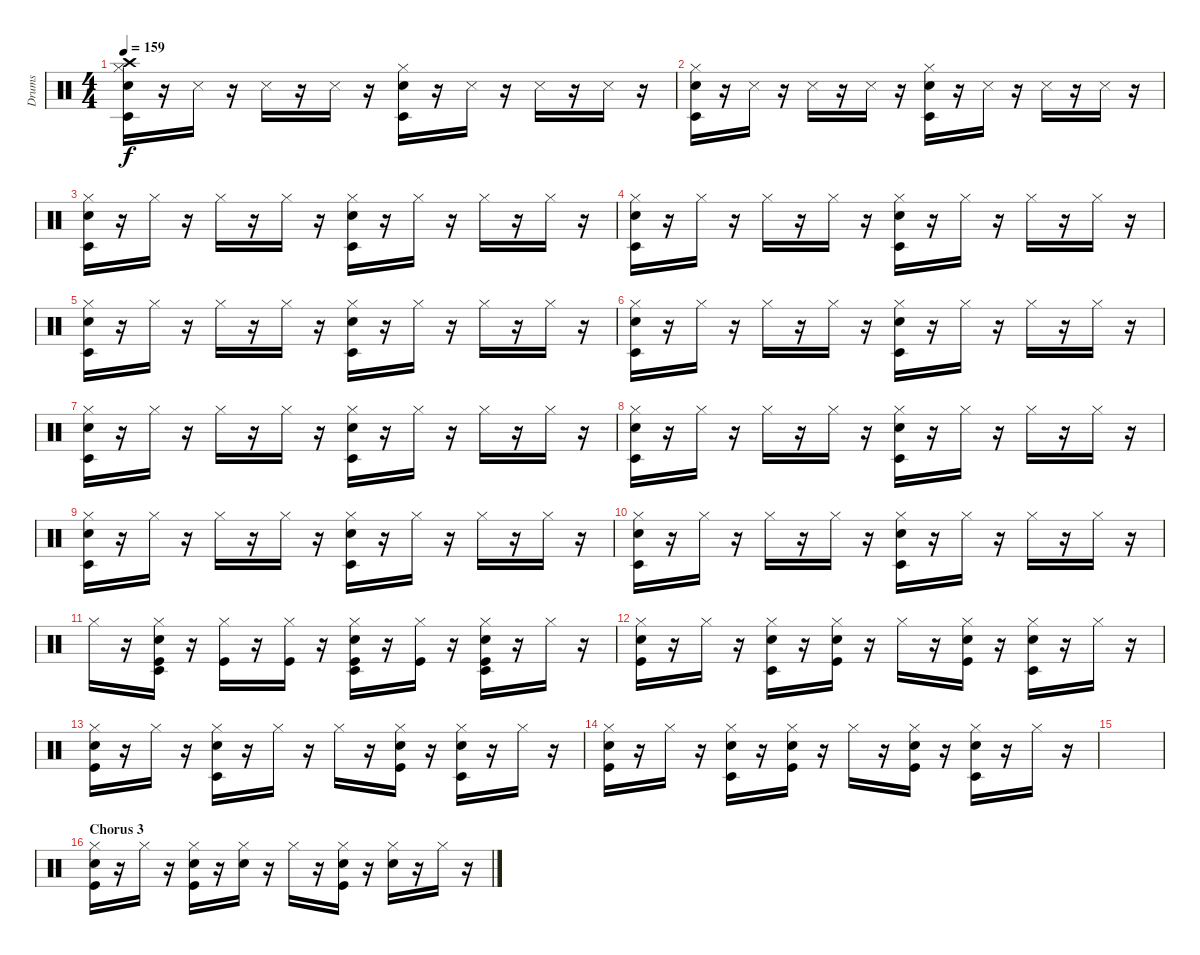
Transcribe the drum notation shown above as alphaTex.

\track ("Drums" "Drums") {instrument percussion}
\staff {score}
\articulation defaults
\ts (4 4)
\tempo 159
\clef neutral
\ks c
("Hi-Hat (closed)" "Timbale low (hit)" "Snare (hit) 2" "Crash high (hit)").16{dy f} r.16 "Snare (side stick) 3".16 r.16 "Snare (side stick) 3".16 r.16 "Snare (side stick) 3".16 r.16 ("Hi-Hat (closed)" "Timbale low (hit)" "Snare (hit) 2").16 r.16 "Snare (side stick) 3".16 r.16 "Snare (side stick) 3".16 r.16 "Snare (side stick) 3".16 r.16 |
("Hi-Hat (closed)" "Timbale low (hit)" "Snare (hit) 2").16 r.16 "Snare (side stick) 3".16 r.16 "Snare (side stick) 3".16 r.16 "Snare (side stick) 3".16 r.16 ("Hi-Hat (closed)" "Timbale low (hit)" "Snare (hit) 2").16 r.16 "Snare (side stick) 3".16 r.16 "Snare (side stick) 3".16 r.16 "Snare (side stick) 3".16 r.16 |
("Hi-Hat (closed)" "Timbale low (hit)" "Snare (hit) 2").16 r.16 "Hi-Hat (closed)".16 r.16 "Hi-Hat (closed)".16 r.16 "Hi-Hat (closed)".16 r.16 ("Hi-Hat (closed)" "Timbale low (hit)" "Snare (hit) 2").16 r.16 "Hi-Hat (closed)".16 r.16 "Hi-Hat (closed)".16 r.16 "Hi-Hat (closed)".16 r.16 |
("Hi-Hat (closed)" "Timbale low (hit)" "Snare (hit) 2").16 r.16 "Hi-Hat (closed)".16 r.16 "Hi-Hat (closed)".16 r.16 "Hi-Hat (closed)".16 r.16 ("Hi-Hat (closed)" "Timbale low (hit)" "Snare (hit) 2").16 r.16 "Hi-Hat (closed)".16 r.16 "Hi-Hat (closed)".16 r.16 "Hi-Hat (closed)".16 r.16 |
("Hi-Hat (closed)" "Timbale low (hit)" "Snare (hit) 2").16 r.16 "Hi-Hat (closed)".16 r.16 "Hi-Hat (closed)".16 r.16 "Hi-Hat (closed)".16 r.16 ("Hi-Hat (closed)" "Timbale low (hit)" "Snare (hit) 2").16 r.16 "Hi-Hat (closed)".16 r.16 "Hi-Hat (closed)".16 r.16 "Hi-Hat (closed)".16 r.16 |
("Hi-Hat (closed)" "Timbale low (hit)" "Snare (hit) 2").16 r.16 "Hi-Hat (closed)".16 r.16 "Hi-Hat (closed)".16 r.16 "Hi-Hat (closed)".16 r.16 ("Hi-Hat (closed)" "Timbale low (hit)" "Snare (hit) 2").16 r.16 "Hi-Hat (closed)".16 r.16 "Hi-Hat (closed)".16 r.16 "Hi-Hat (closed)".16 r.16 |
("Hi-Hat (closed)" "Timbale low (hit)" "Snare (hit) 2").16 r.16 "Hi-Hat (closed)".16 r.16 "Hi-Hat (closed)".16 r.16 "Hi-Hat (closed)".16 r.16 ("Hi-Hat (closed)" "Timbale low (hit)" "Snare (hit) 2").16 r.16 "Hi-Hat (closed)".16 r.16 "Hi-Hat (closed)".16 r.16 "Hi-Hat (closed)".16 r.16 |
("Hi-Hat (closed)" "Timbale low (hit)" "Snare (hit) 2").16 r.16 "Hi-Hat (closed)".16 r.16 "Hi-Hat (closed)".16 r.16 "Hi-Hat (closed)".16 r.16 ("Hi-Hat (closed)" "Timbale low (hit)" "Snare (hit) 2").16 r.16 "Hi-Hat (closed)".16 r.16 "Hi-Hat (closed)".16 r.16 "Hi-Hat (closed)".16 r.16 |
("Hi-Hat (closed)" "Timbale low (hit)" "Snare (hit) 2").16 r.16 "Hi-Hat (closed)".16 r.16 "Hi-Hat (closed)".16 r.16 "Hi-Hat (closed)".16 r.16 ("Hi-Hat (closed)" "Timbale low (hit)" "Snare (hit) 2").16 r.16 "Hi-Hat (closed)".16 r.16 "Hi-Hat (closed)".16 r.16 "Hi-Hat (closed)".16 r.16 |
("Hi-Hat (closed)" "Timbale low (hit)" "Snare (hit) 2").16 r.16 "Hi-Hat (closed)".16 r.16 "Hi-Hat (closed)".16 r.16 "Hi-Hat (closed)".16 r.16 ("Hi-Hat (closed)" "Timbale low (hit)" "Snare (hit) 2").16 r.16 "Hi-Hat (closed)".16 r.16 "Hi-Hat (closed)".16 r.16 "Hi-Hat (closed)".16 r.16 |
"Hi-Hat (closed)".16 r.16 ("Hi-Hat (closed)" "Timbale low (hit)" "Snare (hit) 2" "Kick (hit)").16 r.16 ("Hi-Hat (closed)" "Kick (hit)").16 r.16 ("Hi-Hat (closed)" "Kick (hit)").16 r.16 ("Hi-Hat (closed)" "Timbale low (hit)" "Snare (hit) 2" "Kick (hit)").16 r.16 ("Hi-Hat (closed)" "Kick (hit)").16 r.16 ("Hi-Hat (closed)" "Timbale low (hit)" "Snare (hit) 2" "Kick (hit)").16 r.16 "Hi-Hat (closed)".16 r.16 |
("Hi-Hat (closed)" "Snare (hit) 2" "Kick (hit)").16 r.16 "Hi-Hat (closed)".16 r.16 ("Hi-Hat (closed)" "Timbale low (hit)" "Snare (hit) 2").16 r.16 ("Hi-Hat (closed)" "Snare (hit) 2" "Kick (hit)").16 r.16 "Hi-Hat (closed)".16 r.16 ("Hi-Hat (closed)" "Snare (hit) 2" "Kick (hit)").16 r.16 ("Hi-Hat (closed)" "Timbale low (hit)" "Snare (hit) 2").16 r.16 "Hi-Hat (closed)".16 r.16 |
("Hi-Hat (closed)" "Snare (hit) 2" "Kick (hit)").16 r.16 "Hi-Hat (closed)".16 r.16 ("Hi-Hat (closed)" "Timbale low (hit)" "Snare (hit) 2").16 r.16 "Hi-Hat (closed)".16 r.16 "Hi-Hat (closed)".16 r.16 ("Hi-Hat (closed)" "Snare (hit) 2" "Kick (hit)").16 r.16 ("Hi-Hat (closed)" "Timbale low (hit)" "Snare (hit) 2").16 r.16 "Hi-Hat (closed)".16 r.16 |
("Hi-Hat (closed)" "Snare (hit) 2" "Kick (hit)").16 r.16 "Hi-Hat (closed)".16 r.16 ("Hi-Hat (closed)" "Timbale low (hit)" "Snare (hit) 2").16 r.16 ("Hi-Hat (closed)" "Snare (hit) 2" "Kick (hit)").16 r.16 "Hi-Hat (closed)".16 r.16 ("Hi-Hat (closed)" "Snare (hit) 2" "Kick (hit)").16 r.16 ("Hi-Hat (closed)" "Timbale low (hit)" "Snare (hit) 2").16 r.16 "Hi-Hat (closed)".16 r.16 |
|
\section ("" "Chorus 3")
("Hi-Hat (closed)" "Snare (hit) 2" "Kick (hit)").16 r.16 "Hi-Hat (closed)".16 r.16 ("Hi-Hat (closed)" "Snare (hit) 2" "Kick (hit)").16 r.16 ("Hi-Hat (closed)" "Snare (hit) 2").16 r.16 "Hi-Hat (closed)".16 r.16 ("Hi-Hat (closed)" "Snare (hit) 2" "Kick (hit)").16 r.16 ("Hi-Hat (closed)" "Snare (hit) 2").16 r.16 "Hi-Hat (closed)".16 r.16
